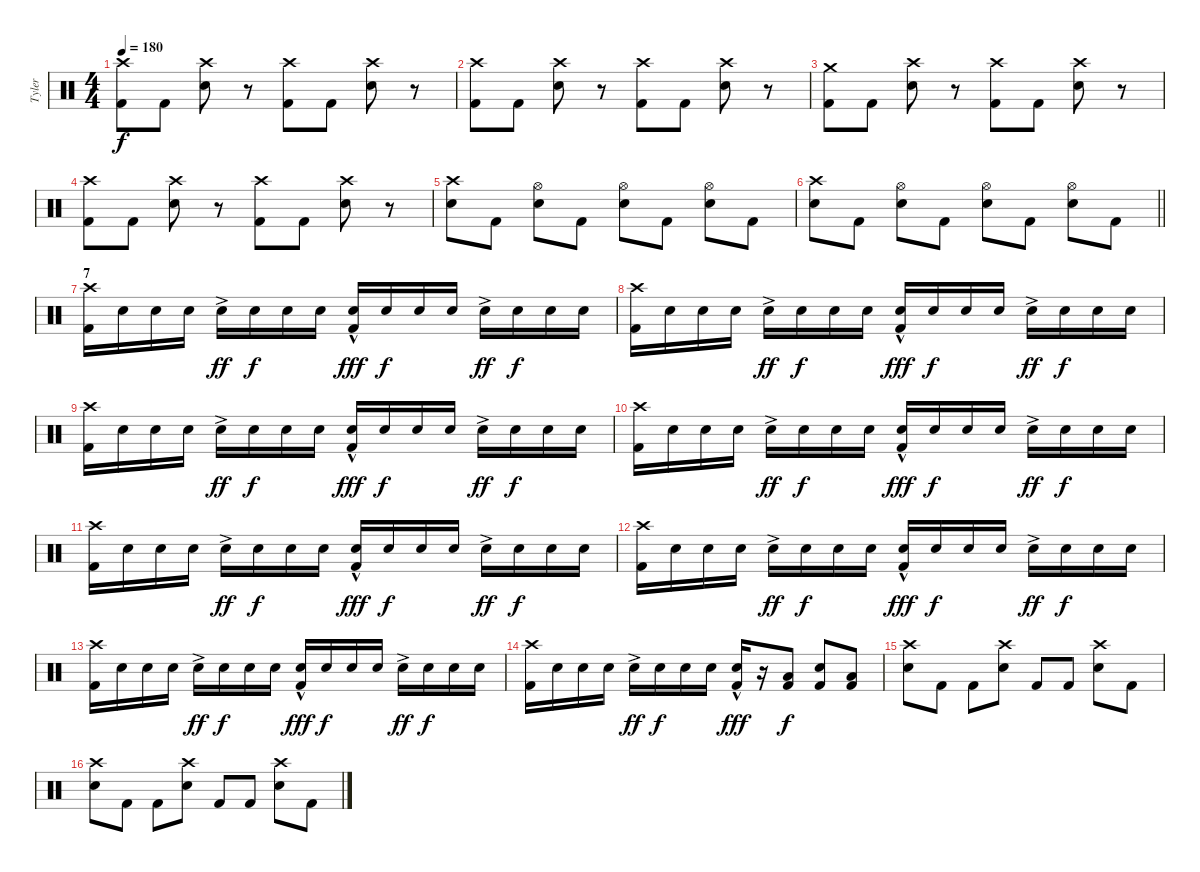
\track ("Tyler" "Tyler") {instrument percussion}
\staff {score}
\articulation defaults
\ts (4 4)
\tempo 180
\clef neutral
\ks c
("Crash high (hit)" "Kick (hit) 2").8{dy f} "Kick (hit) 2".8 ("Crash high (hit)" "Snare (hit) 2").8 r.8 ("Crash high (hit)" "Kick (hit) 2").8 "Kick (hit) 2".8 ("Crash high (hit)" "Snare (hit) 2").8 r.8 |
("Crash high (hit)" "Kick (hit) 2").8 "Kick (hit) 2".8 ("Crash high (hit)" "Snare (hit) 2").8 r.8 ("Crash high (hit)" "Kick (hit) 2").8 "Kick (hit) 2".8 ("Crash high (hit)" "Snare (hit) 2").8 r.8 |
("Crash medium (hit)" "Kick (hit) 2").8 "Kick (hit) 2".8 ("Crash high (hit)" "Snare (hit) 2").8 r.8 ("Crash high (hit)" "Kick (hit) 2").8 "Kick (hit) 2".8 ("Crash high (hit)" "Snare (hit) 2").8 r.8 |
("Crash high (hit)" "Kick (hit) 2").8 "Kick (hit) 2".8 ("Crash high (hit)" "Snare (hit) 2").8 r.8 ("Crash high (hit)" "Kick (hit) 2").8 "Kick (hit) 2".8 ("Crash high (hit)" "Snare (hit) 2").8 r.8 |
("Crash high (hit)" "Snare (hit) 2").8 "Kick (hit) 2".8 ("Hi-Hat (open)" "Snare (hit) 2").8 "Kick (hit) 2".8 ("Hi-Hat (open)" "Snare (hit) 2").8 "Kick (hit) 2".8 ("Hi-Hat (open)" "Snare (hit) 2").8 "Kick (hit) 2".8 |
\barLineRight lightlight
("Crash high (hit)" "Snare (hit) 2").8 "Kick (hit) 2".8 ("Hi-Hat (open)" "Snare (hit) 2").8 "Kick (hit) 2".8 ("Hi-Hat (open)" "Snare (hit) 2").8 "Kick (hit) 2".8 ("Hi-Hat (open)" "Snare (hit) 2").8 "Kick (hit) 2".8 |
\section ("" "7")
("Crash high (hit)" "Kick (hit) 2").16 "Snare (hit) 2".16 "Snare (hit) 2".16 "Snare (hit) 2".16 "Snare (hit) 2"{ac}.16{dy ff} "Snare (hit) 2".16{dy f} "Snare (hit) 2".16 "Snare (hit) 2".16 ("Snare (hit) 2"{hac} "Kick (hit) 2").16{dy fff} "Snare (hit) 2".16{dy f} "Snare (hit) 2".16 "Snare (hit) 2".16 "Snare (hit) 2"{ac}.16{dy ff} "Snare (hit) 2".16{dy f} "Snare (hit) 2".16 "Snare (hit) 2".16 |
("Crash high (hit)" "Kick (hit) 2").16 "Snare (hit) 2".16 "Snare (hit) 2".16 "Snare (hit) 2".16 "Snare (hit) 2"{ac}.16{dy ff} "Snare (hit) 2".16{dy f} "Snare (hit) 2".16 "Snare (hit) 2".16 ("Snare (hit) 2"{hac} "Kick (hit) 2").16{dy fff} "Snare (hit) 2".16{dy f} "Snare (hit) 2".16 "Snare (hit) 2".16 "Snare (hit) 2"{ac}.16{dy ff} "Snare (hit) 2".16{dy f} "Snare (hit) 2".16 "Snare (hit) 2".16 |
("Crash high (hit)" "Kick (hit) 2").16 "Snare (hit) 2".16 "Snare (hit) 2".16 "Snare (hit) 2".16 "Snare (hit) 2"{ac}.16{dy ff} "Snare (hit) 2".16{dy f} "Snare (hit) 2".16 "Snare (hit) 2".16 ("Snare (hit) 2"{hac} "Kick (hit) 2").16{dy fff} "Snare (hit) 2".16{dy f} "Snare (hit) 2".16 "Snare (hit) 2".16 "Snare (hit) 2"{ac}.16{dy ff} "Snare (hit) 2".16{dy f} "Snare (hit) 2".16 "Snare (hit) 2".16 |
("Crash high (hit)" "Kick (hit) 2").16 "Snare (hit) 2".16 "Snare (hit) 2".16 "Snare (hit) 2".16 "Snare (hit) 2"{ac}.16{dy ff} "Snare (hit) 2".16{dy f} "Snare (hit) 2".16 "Snare (hit) 2".16 ("Snare (hit) 2"{hac} "Kick (hit) 2").16{dy fff} "Snare (hit) 2".16{dy f} "Snare (hit) 2".16 "Snare (hit) 2".16 "Snare (hit) 2"{ac}.16{dy ff} "Snare (hit) 2".16{dy f} "Snare (hit) 2".16 "Snare (hit) 2".16 |
("Crash high (hit)" "Kick (hit) 2").16 "Snare (hit) 2".16 "Snare (hit) 2".16 "Snare (hit) 2".16 "Snare (hit) 2"{ac}.16{dy ff} "Snare (hit) 2".16{dy f} "Snare (hit) 2".16 "Snare (hit) 2".16 ("Snare (hit) 2"{hac} "Kick (hit) 2").16{dy fff} "Snare (hit) 2".16{dy f} "Snare (hit) 2".16 "Snare (hit) 2".16 "Snare (hit) 2"{ac}.16{dy ff} "Snare (hit) 2".16{dy f} "Snare (hit) 2".16 "Snare (hit) 2".16 |
("Crash high (hit)" "Kick (hit) 2").16 "Snare (hit) 2".16 "Snare (hit) 2".16 "Snare (hit) 2".16 "Snare (hit) 2"{ac}.16{dy ff} "Snare (hit) 2".16{dy f} "Snare (hit) 2".16 "Snare (hit) 2".16 ("Snare (hit) 2"{hac} "Kick (hit) 2").16{dy fff} "Snare (hit) 2".16{dy f} "Snare (hit) 2".16 "Snare (hit) 2".16 "Snare (hit) 2"{ac}.16{dy ff} "Snare (hit) 2".16{dy f} "Snare (hit) 2".16 "Snare (hit) 2".16 |
("Crash high (hit)" "Kick (hit) 2").16 "Snare (hit) 2".16 "Snare (hit) 2".16 "Snare (hit) 2".16 "Snare (hit) 2"{ac}.16{dy ff} "Snare (hit) 2".16{dy f} "Snare (hit) 2".16 "Snare (hit) 2".16 ("Snare (hit) 2"{hac} "Kick (hit) 2").16{dy fff} "Snare (hit) 2".16{dy f} "Snare (hit) 2".16 "Snare (hit) 2".16 "Snare (hit) 2"{ac}.16{dy ff} "Snare (hit) 2".16{dy f} "Snare (hit) 2".16 "Snare (hit) 2".16 |
("Crash high (hit)" "Kick (hit) 2").16 "Snare (hit) 2".16 "Snare (hit) 2".16 "Snare (hit) 2".16 "Snare (hit) 2"{ac}.16{dy ff} "Snare (hit) 2".16{dy f} "Snare (hit) 2".16 "Snare (hit) 2".16 ("Snare (hit) 2"{hac} "Kick (hit) 2").16{dy fff} r.16 ("Low Floor Tom (hit)" "Kick (hit) 2").8{dy f} ("Snare (hit) 2" "Kick (hit) 2").8 ("Low Floor Tom (hit)" "Kick (hit) 2").8 |
("Crash high (hit)" "Snare (hit) 2").8 "Kick (hit) 2".8 "Kick (hit) 2".8 ("Crash high (hit)" "Snare (hit) 2").8 "Kick (hit) 2".8 "Kick (hit) 2".8 ("Crash high (hit)" "Snare (hit) 2").8 "Kick (hit) 2".8 |
("Crash high (hit)" "Snare (hit) 2").8 "Kick (hit) 2".8 "Kick (hit) 2".8 ("Crash high (hit)" "Snare (hit) 2").8 "Kick (hit) 2".8 "Kick (hit) 2".8 ("Crash high (hit)" "Snare (hit) 2").8 "Kick (hit) 2".8
